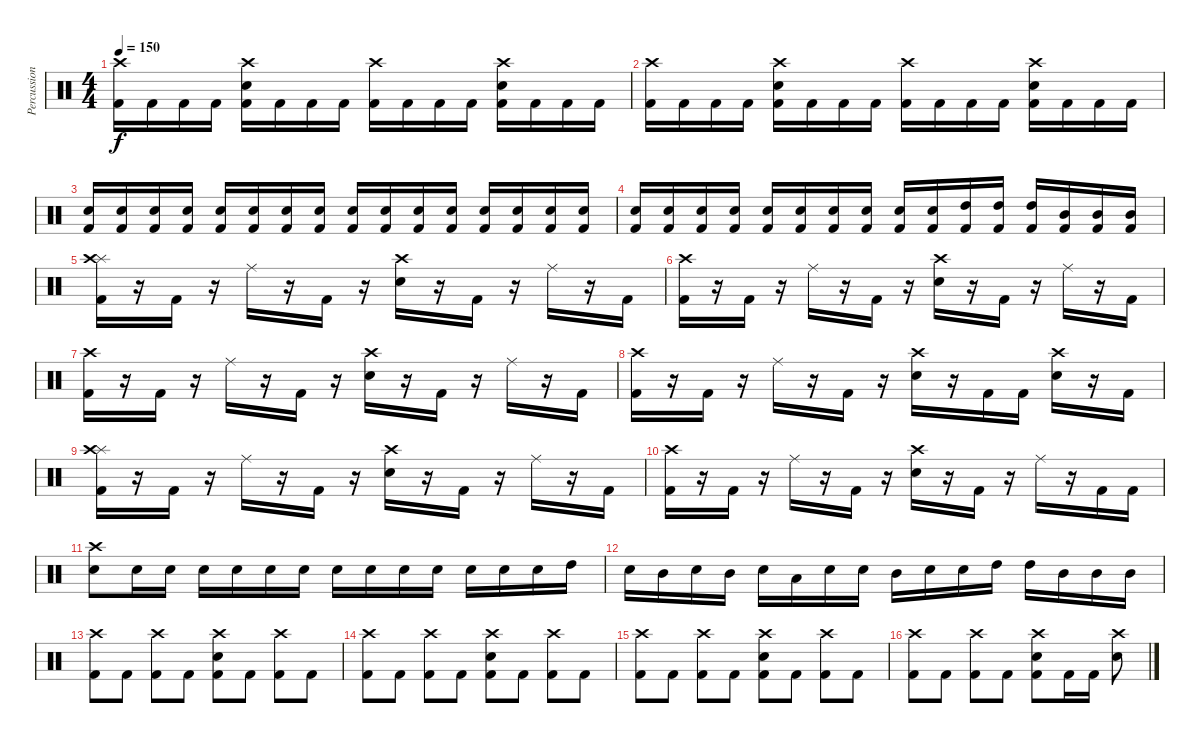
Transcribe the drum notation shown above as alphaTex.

\track ("Percussion" "Percussion") {instrument percussion}
\staff {score}
\articulation defaults
\ts (4 4)
\tempo 150
\clef neutral
\ks c
("Crash high (hit)" "Kick (hit) 2").16{dy f} "Kick (hit) 2".16 "Kick (hit) 2".16 "Kick (hit) 2".16 ("Crash high (hit)" "Snare (hit) 2" "Kick (hit) 2").16 "Kick (hit) 2".16 "Kick (hit) 2".16 "Kick (hit) 2".16 ("Crash high (hit)" "Kick (hit) 2").16 "Kick (hit) 2".16 "Kick (hit) 2".16 "Kick (hit) 2".16 ("Crash high (hit)" "Snare (hit) 2" "Kick (hit) 2").16 "Kick (hit) 2".16 "Kick (hit) 2".16 "Kick (hit) 2".16 |
("Crash high (hit)" "Kick (hit) 2").16 "Kick (hit) 2".16 "Kick (hit) 2".16 "Kick (hit) 2".16 ("Crash high (hit)" "Snare (hit) 2" "Kick (hit) 2").16 "Kick (hit) 2".16 "Kick (hit) 2".16 "Kick (hit) 2".16 ("Crash high (hit)" "Kick (hit) 2").16 "Kick (hit) 2".16 "Kick (hit) 2".16 "Kick (hit) 2".16 ("Crash high (hit)" "Snare (hit) 2" "Kick (hit) 2").16 "Kick (hit) 2".16 "Kick (hit) 2".16 "Kick (hit) 2".16 |
("Snare (hit) 2" "Kick (hit) 2").16 ("Snare (hit) 2" "Kick (hit) 2").16 ("Snare (hit) 2" "Kick (hit) 2").16 ("Snare (hit) 2" "Kick (hit) 2").16 ("Snare (hit) 2" "Kick (hit) 2").16 ("Snare (hit) 2" "Kick (hit) 2").16 ("Snare (hit) 2" "Kick (hit) 2").16 ("Snare (hit) 2" "Kick (hit) 2").16 ("Snare (hit) 2" "Kick (hit) 2").16 ("Snare (hit) 2" "Kick (hit) 2").16 ("Snare (hit) 2" "Kick (hit) 2").16 ("Snare (hit) 2" "Kick (hit) 2").16 ("Snare (hit) 2" "Kick (hit) 2").16 ("Snare (hit) 2" "Kick (hit) 2").16 ("Snare (hit) 2" "Kick (hit) 2").16 ("Snare (hit) 2" "Kick (hit) 2").16 |
("Snare (hit) 2" "Kick (hit) 2").16 ("Snare (hit) 2" "Kick (hit) 2").16 ("Snare (hit) 2" "Kick (hit) 2").16 ("Snare (hit) 2" "Kick (hit) 2").16 ("Snare (hit) 2" "Kick (hit) 2").16 ("Snare (hit) 2" "Kick (hit) 2").16 ("Snare (hit) 2" "Kick (hit) 2").16 ("Snare (hit) 2" "Kick (hit) 2").16 ("Snare (hit) 2" "Kick (hit) 2").16 ("Snare (hit) 2" "Kick (hit) 2").16 ("High Tom (hit)" "Kick (hit) 2").16 ("High Tom (hit)" "Kick (hit) 2").16 ("High Tom (hit)" "Kick (hit) 2").16 ("Mid Tom (hit)" "Kick (hit) 2").16 ("Mid Tom (hit)" "Kick (hit) 2").16 ("Mid Tom (hit)" "Kick (hit) 2").16 |
("Splash (hit)" "Crash high (hit)" "Kick (hit) 2").16 r.16 "Kick (hit) 2".16 r.16 "Ride (middle)".16 r.16 "Kick (hit) 2".16 r.16 ("Crash high (hit)" "Snare (hit) 2").16 r.16 "Kick (hit) 2".16 r.16 "Ride (middle)".16 r.16 "Kick (hit) 2".16 |
("Crash high (hit)" "Kick (hit) 2").16 r.16 "Kick (hit) 2".16 r.16 "Ride (middle)".16 r.16 "Kick (hit) 2".16 r.16 ("Crash high (hit)" "Snare (hit) 2").16 r.16 "Kick (hit) 2".16 r.16 "Ride (middle)".16 r.16 "Kick (hit) 2".16 |
("Crash high (hit)" "Kick (hit) 2").16 r.16 "Kick (hit) 2".16 r.16 "Ride (middle)".16 r.16 "Kick (hit) 2".16 r.16 ("Crash high (hit)" "Snare (hit) 2").16 r.16 "Kick (hit) 2".16 r.16 "Ride (middle)".16 r.16 "Kick (hit) 2".16 |
("Crash high (hit)" "Kick (hit) 2").16 r.16 "Kick (hit) 2".16 r.16 "Ride (middle)".16 r.16 "Kick (hit) 2".16 r.16 ("Crash high (hit)" "Snare (hit) 2").16 r.16 "Kick (hit) 2".16 "Kick (hit) 2".16 ("Crash high (hit)" "Snare (hit) 2").16 r.16 "Kick (hit) 2".16 |
("Splash (hit)" "Crash high (hit)" "Kick (hit) 2").16 r.16 "Kick (hit) 2".16 r.16 "Ride (middle)".16 r.16 "Kick (hit) 2".16 r.16 ("Crash high (hit)" "Snare (hit) 2").16 r.16 "Kick (hit) 2".16 r.16 "Ride (middle)".16 r.16 "Kick (hit) 2".16 |
("Crash high (hit)" "Kick (hit) 2").16 r.16 "Kick (hit) 2".16 r.16 "Ride (middle)".16 r.16 "Kick (hit) 2".16 r.16 ("Crash high (hit)" "Snare (hit) 2").16 r.16 "Kick (hit) 2".16 r.16 "Ride (middle)".16 r.16 "Kick (hit) 2".16 "Kick (hit) 2".16 |
("Crash high (hit)" "Snare (hit) 2").8 "Snare (hit) 2".16 "Snare (hit) 2".16 "Snare (hit) 2".16 "Snare (hit) 2".16 "Snare (hit) 2".16 "Snare (hit) 2".16 "Snare (hit) 2".16 "Snare (hit) 2".16 "Snare (hit) 2".16 "Snare (hit) 2".16 "Snare (hit) 2".16 "Snare (hit) 2".16 "Snare (hit) 2".16 "High Tom (hit)".16 |
"Snare (hit) 2".16 "Mid Tom (hit)".16 "Snare (hit) 2".16 "Mid Tom (hit)".16 "Snare (hit) 2".16 "Low Tom (hit)".16 "Snare (hit) 2".16 "Snare (hit) 2".16 "Mid Tom (hit)".16 "Snare (hit) 2".16 "Snare (hit) 2".16 "High Tom (hit)".16 "High Tom (hit)".16 "Mid Tom (hit)".16 "Mid Tom (hit)".16 "Mid Tom (hit)".16 |
("Crash high (hit)" "Kick (hit) 2").8 "Kick (hit) 2".8 ("Crash high (hit)" "Kick (hit) 2").8 "Kick (hit) 2".8 ("Crash high (hit)" "Snare (hit) 2" "Kick (hit) 2").8 "Kick (hit) 2".8 ("Crash high (hit)" "Kick (hit) 2").8 "Kick (hit) 2".8 |
("Crash high (hit)" "Kick (hit) 2").8 "Kick (hit) 2".8 ("Crash high (hit)" "Kick (hit) 2").8 "Kick (hit) 2".8 ("Crash high (hit)" "Snare (hit) 2" "Kick (hit) 2").8 "Kick (hit) 2".8 ("Crash high (hit)" "Kick (hit) 2").8 "Kick (hit) 2".8 |
("Crash high (hit)" "Kick (hit) 2").8 "Kick (hit) 2".8 ("Crash high (hit)" "Kick (hit) 2").8 "Kick (hit) 2".8 ("Crash high (hit)" "Snare (hit) 2" "Kick (hit) 2").8 "Kick (hit) 2".8 ("Crash high (hit)" "Kick (hit) 2").8 "Kick (hit) 2".8 |
("Crash high (hit)" "Kick (hit) 2").8 "Kick (hit) 2".8 ("Crash high (hit)" "Kick (hit) 2").8 "Kick (hit) 2".8 ("Crash high (hit)" "Snare (hit) 2" "Kick (hit) 2").8 "Kick (hit) 2".16 "Kick (hit) 2".16 ("Crash high (hit)" "Snare (hit) 2").8
